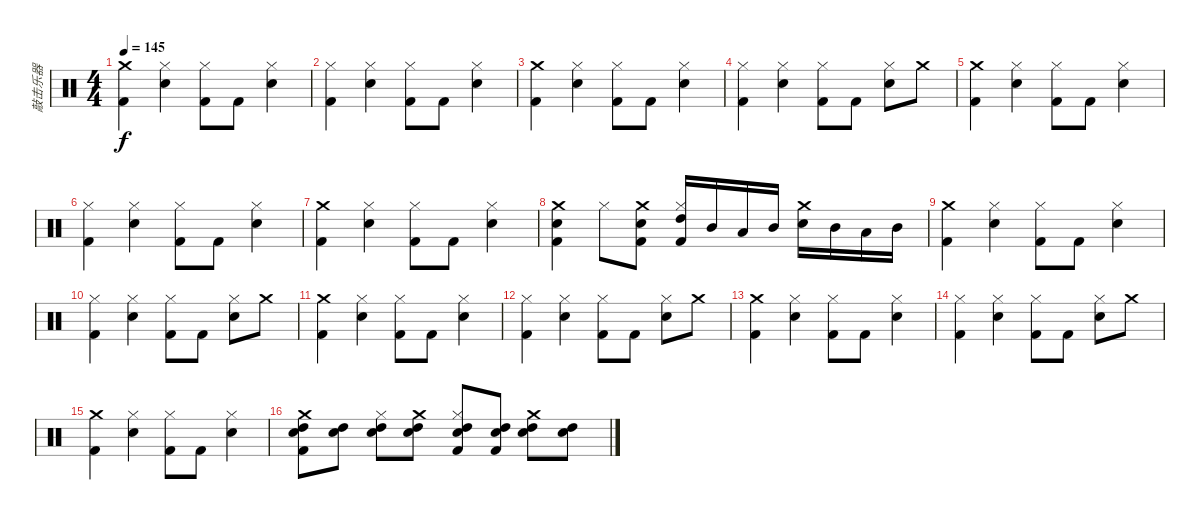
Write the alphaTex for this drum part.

\track ("敲击乐器" "敲击乐器") {instrument percussion}
\staff {score}
\articulation defaults
\ts (4 4)
\tempo 145
\clef neutral
\ks c
("Crash medium (hit)" "Kick (hit) 2").4{dy f} ("Hi-Hat (closed)" "Electric Snare (hit)").4 ("Hi-Hat (closed)" "Kick (hit) 2").8 "Kick (hit) 2".8 ("Hi-Hat (closed)" "Electric Snare (hit)").4 |
("Hi-Hat (closed)" "Kick (hit) 2").4 ("Hi-Hat (closed)" "Electric Snare (hit)").4 ("Hi-Hat (closed)" "Kick (hit) 2").8 "Kick (hit) 2".8 ("Hi-Hat (closed)" "Electric Snare (hit)").4 |
("Crash medium (hit)" "Kick (hit) 2").4 ("Hi-Hat (closed)" "Electric Snare (hit)").4 ("Hi-Hat (closed)" "Kick (hit) 2").8 "Kick (hit) 2".8 ("Hi-Hat (closed)" "Electric Snare (hit)").4 |
("Hi-Hat (closed)" "Kick (hit) 2").4 ("Hi-Hat (closed)" "Electric Snare (hit)").4 ("Hi-Hat (closed)" "Kick (hit) 2").8 "Kick (hit) 2".8 ("Hi-Hat (closed)" "Electric Snare (hit)").8 "Crash medium (hit)".8 |
("Crash medium (hit)" "Kick (hit) 2").4 ("Hi-Hat (closed)" "Electric Snare (hit)").4 ("Hi-Hat (closed)" "Kick (hit) 2").8 "Kick (hit) 2".8 ("Hi-Hat (closed)" "Electric Snare (hit)").4 |
("Hi-Hat (closed)" "Kick (hit) 2").4 ("Hi-Hat (closed)" "Electric Snare (hit)").4 ("Hi-Hat (closed)" "Kick (hit) 2").8 "Kick (hit) 2".8 ("Hi-Hat (closed)" "Electric Snare (hit)").4 |
("Crash medium (hit)" "Kick (hit) 2").4 ("Hi-Hat (closed)" "Electric Snare (hit)").4 ("Hi-Hat (closed)" "Kick (hit) 2").8 "Kick (hit) 2".8 ("Hi-Hat (closed)" "Electric Snare (hit)").4 |
("Crash medium (hit)" "Electric Snare (hit)" "Kick (hit) 2").4 "Hi-Hat (closed)".8 ("Crash medium (hit)" "Electric Snare (hit)" "Kick (hit) 2").8 ("Hi-Hat (closed)" "High Tom (hit)" "Kick (hit) 2").16 "Mid Tom (hit)".16 "Low Tom (hit)".16 "Mid Tom (hit)".16 ("Crash medium (hit)" "Electric Snare (hit)").16 "Mid Tom (hit)".16 "Low Tom (hit)".16 "Mid Tom (hit)".16 |
("Crash medium (hit)" "Kick (hit) 2").4 ("Hi-Hat (closed)" "Electric Snare (hit)").4 ("Hi-Hat (closed)" "Kick (hit) 2").8 "Kick (hit) 2".8 ("Hi-Hat (closed)" "Electric Snare (hit)").4 |
("Hi-Hat (closed)" "Kick (hit) 2").4 ("Hi-Hat (closed)" "Electric Snare (hit)").4 ("Hi-Hat (closed)" "Kick (hit) 2").8 "Kick (hit) 2".8 ("Hi-Hat (closed)" "Electric Snare (hit)").8 "Crash medium (hit)".8 |
("Crash medium (hit)" "Kick (hit) 2").4 ("Hi-Hat (closed)" "Electric Snare (hit)").4 ("Hi-Hat (closed)" "Kick (hit) 2").8 "Kick (hit) 2".8 ("Hi-Hat (closed)" "Electric Snare (hit)").4 |
("Hi-Hat (closed)" "Kick (hit) 2").4 ("Hi-Hat (closed)" "Electric Snare (hit)").4 ("Hi-Hat (closed)" "Kick (hit) 2").8 "Kick (hit) 2".8 ("Hi-Hat (closed)" "Electric Snare (hit)").8 "Crash medium (hit)".8 |
("Crash medium (hit)" "Kick (hit) 2").4 ("Hi-Hat (closed)" "Electric Snare (hit)").4 ("Hi-Hat (closed)" "Kick (hit) 2").8 "Kick (hit) 2".8 ("Hi-Hat (closed)" "Electric Snare (hit)").4 |
("Hi-Hat (closed)" "Kick (hit) 2").4 ("Hi-Hat (closed)" "Electric Snare (hit)").4 ("Hi-Hat (closed)" "Kick (hit) 2").8 "Kick (hit) 2".8 ("Hi-Hat (closed)" "Electric Snare (hit)").8 "Crash medium (hit)".8 |
("Crash medium (hit)" "Kick (hit) 2").4 ("Hi-Hat (closed)" "Electric Snare (hit)").4 ("Hi-Hat (closed)" "Kick (hit) 2").8 "Kick (hit) 2".8 ("Hi-Hat (closed)" "Electric Snare (hit)").4 |
("Crash medium (hit)" "Electric Snare (hit)" "High Tom (hit)" "Kick (hit) 2").8 ("Electric Snare (hit)" "High Tom (hit)").8 ("Hi-Hat (closed)" "Electric Snare (hit)" "High Tom (hit)").8 ("Crash medium (hit)" "Electric Snare (hit)" "High Tom (hit)").8 ("Hi-Hat (closed)" "Electric Snare (hit)" "High Tom (hit)" "Kick (hit) 2").8 ("Electric Snare (hit)" "High Tom (hit)" "Kick (hit) 2").8 ("Crash medium (hit)" "Electric Snare (hit)" "High Tom (hit)").8 ("Electric Snare (hit)" "High Tom (hit)").8
